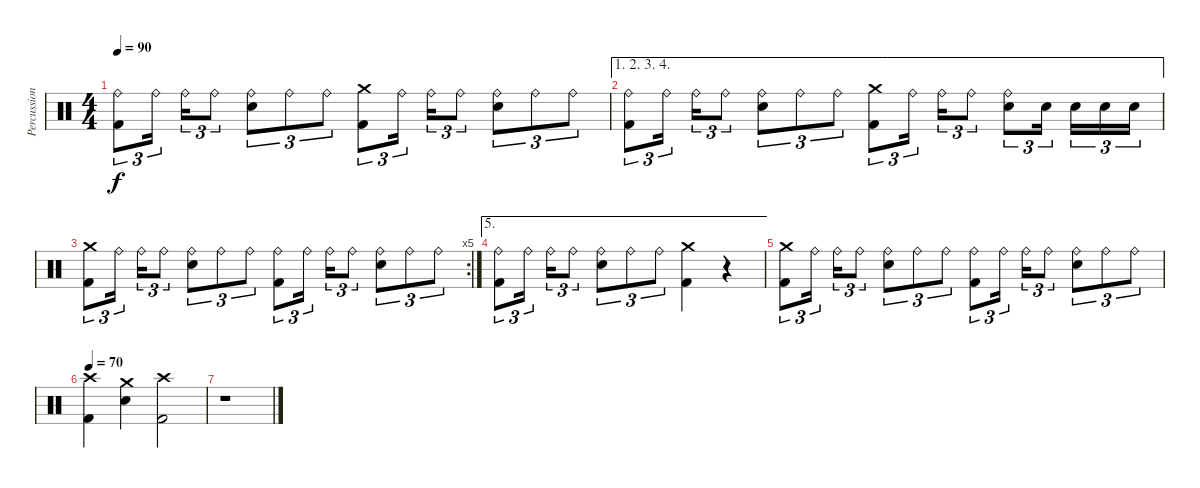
\track ("Percussions" "Percussion") {instrument percussion}
\staff {score}
\articulation defaults
\ts (4 4)
\tempo 90
\clef neutral
\ks c
("Ride (bell)" "Kick (hit) 2").8{tu (3 2) dy f} "Ride (bell)".16{tu (3 2)} "Ride (bell)".16{tu (3 2)} "Ride (bell)".8{tu (3 2)} ("Ride (bell)" "Snare (hit) 2").8{tu (3 2)} "Ride (bell)".8{tu (3 2)} "Ride (bell)".8{tu (3 2)} ("Crash medium (hit)" "Kick (hit) 2").8{tu (3 2)} "Ride (bell)".16{tu (3 2)} "Ride (bell)".16{tu (3 2)} "Ride (bell)".8{tu (3 2)} ("Ride (bell)" "Snare (hit) 2").8{tu (3 2)} "Ride (bell)".8{tu (3 2)} "Ride (bell)".8{tu (3 2)} |
\ae (1 2 3 4)
("Ride (bell)" "Kick (hit) 2").8{tu (3 2)} "Ride (bell)".16{tu (3 2)} "Ride (bell)".16{tu (3 2)} "Ride (bell)".8{tu (3 2)} ("Ride (bell)" "Snare (hit) 2").8{tu (3 2)} "Ride (bell)".8{tu (3 2)} "Ride (bell)".8{tu (3 2)} ("Crash medium (hit)" "Kick (hit) 2").8{tu (3 2)} "Ride (bell)".16{tu (3 2)} "Ride (bell)".16{tu (3 2)} "Ride (bell)".8{tu (3 2)} ("Ride (bell)" "Snare (hit) 2").8{tu (3 2)} "Snare (hit) 2".16{tu (3 2)} "Snare (hit) 2".16{tu (3 2)} "Snare (hit) 2".16{tu (3 2)} "Snare (hit) 2".16{tu (3 2)} |
\rc 5
("Crash medium (hit)" "Kick (hit) 2").8{tu (3 2)} "Ride (bell)".16{tu (3 2)} "Ride (bell)".16{tu (3 2)} "Ride (bell)".8{tu (3 2)} ("Ride (bell)" "Snare (hit) 2").8{tu (3 2)} "Ride (bell)".8{tu (3 2)} "Ride (bell)".8{tu (3 2)} ("Ride (bell)" "Kick (hit) 2").8{tu (3 2)} "Ride (bell)".16{tu (3 2)} "Ride (bell)".16{tu (3 2)} "Ride (bell)".8{tu (3 2)} ("Ride (bell)" "Snare (hit) 2").8{tu (3 2)} "Ride (bell)".8{tu (3 2)} "Ride (bell)".8{tu (3 2)} |
\ae 5
("Ride (bell)" "Kick (hit) 2").8{tu (3 2)} "Ride (bell)".16{tu (3 2)} "Ride (bell)".16{tu (3 2)} "Ride (bell)".8{tu (3 2)} ("Ride (bell)" "Snare (hit) 2").8{tu (3 2)} "Ride (bell)".8{tu (3 2)} "Ride (bell)".8{tu (3 2)} ("Crash medium (hit)" "Kick (hit) 2").4 r.4 |
("Crash medium (hit)" "Kick (hit) 2").8{tu (3 2)} "Ride (bell)".16{tu (3 2)} "Ride (bell)".16{tu (3 2)} "Ride (bell)".8{tu (3 2)} ("Ride (bell)" "Snare (hit) 2").8{tu (3 2)} "Ride (bell)".8{tu (3 2)} "Ride (bell)".8{tu (3 2)} ("Ride (bell)" "Kick (hit) 2").8{tu (3 2)} "Ride (bell)".16{tu (3 2)} "Ride (bell)".16{tu (3 2)} "Ride (bell)".8{tu (3 2)} ("Ride (bell)" "Snare (hit) 2").8{tu (3 2)} "Ride (bell)".8{tu (3 2)} "Ride (bell)".8{tu (3 2)} |
\tempo 70
("Crash high (hit)" "Kick (hit) 2").4 ("Crash medium (hit)" "Snare (hit) 2").4 ("Crash high (hit)" "Kick (hit) 2").2 |
r.1
